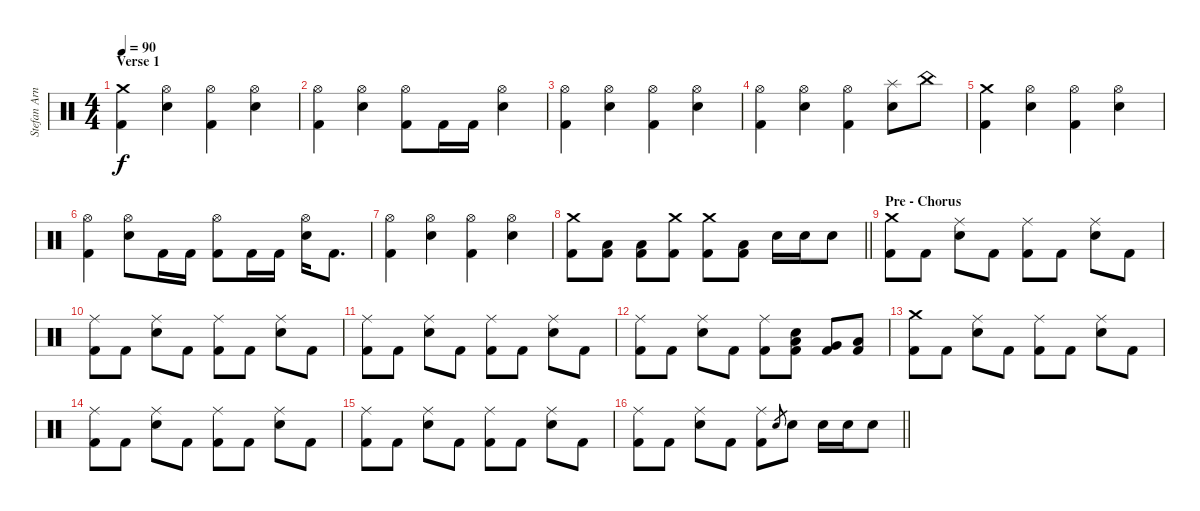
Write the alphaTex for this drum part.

\track ("Stefan Arnold" "Stefan Arn") {instrument percussion}
\staff {score}
\articulation defaults
\ts (4 4)
\section ("" "Verse 1")
\tempo 90
\clef neutral
\ks c
("Crash medium (hit)" "Kick (hit) 2").4{dy f} ("Hi-Hat (open)" "Electric Snare (hit)").4 ("Hi-Hat (open)" "Kick (hit) 2").4 ("Hi-Hat (open)" "Electric Snare (hit)").4 |
("Hi-Hat (open)" "Kick (hit) 2").4 ("Hi-Hat (open)" "Electric Snare (hit)").4 ("Hi-Hat (open)" "Kick (hit) 2").8 "Kick (hit) 2".16 "Kick (hit) 2".16 ("Hi-Hat (open)" "Electric Snare (hit)").4 |
("Hi-Hat (open)" "Kick (hit) 2").4 ("Hi-Hat (open)" "Electric Snare (hit)").4 ("Hi-Hat (open)" "Kick (hit) 2").4 ("Hi-Hat (open)" "Electric Snare (hit)").4 |
("Hi-Hat (open)" "Kick (hit) 2").4 ("Hi-Hat (open)" "Electric Snare (hit)").4 ("Hi-Hat (open)" "Kick (hit) 2").4 ("Splash (hit)" "Electric Snare (hit)").8 "China (hit)".8 |
("Crash medium (hit)" "Kick (hit) 2").4 ("Hi-Hat (open)" "Electric Snare (hit)").4 ("Hi-Hat (open)" "Kick (hit) 2").4 ("Hi-Hat (open)" "Electric Snare (hit)").4 |
("Hi-Hat (open)" "Kick (hit) 2").4 ("Hi-Hat (open)" "Electric Snare (hit)").8 "Kick (hit) 2".16 "Kick (hit) 2".16 ("Hi-Hat (open)" "Kick (hit) 2").8 "Kick (hit) 2".16 "Kick (hit) 2".16 ("Hi-Hat (open)" "Electric Snare (hit)").16 "Kick (hit) 2".8{d} |
("Hi-Hat (open)" "Kick (hit) 2").4 ("Hi-Hat (open)" "Electric Snare (hit)").4 ("Hi-Hat (open)" "Kick (hit) 2").4 ("Hi-Hat (open)" "Electric Snare (hit)").4 |
\barLineRight lightlight
("Crash medium (hit)" "Kick (hit) 2").8 ("Low Floor Tom (hit)" "Kick (hit) 2").8 ("Low Floor Tom (hit)" "Kick (hit) 2").8 ("Crash medium (hit)" "Kick (hit) 2").8 ("Crash medium (hit)" "Kick (hit) 2").8 ("Low Floor Tom (hit)" "Kick (hit) 2").8 "Electric Snare (hit)".16 "Electric Snare (hit)".16 "Electric Snare (hit)".8 |
\section ("" "Pre - Chorus")
("Crash medium (hit)" "Kick (hit) 2").8 "Kick (hit) 2".8 ("Ride (middle)" "Electric Snare (hit)").8 "Kick (hit) 2".8 ("Ride (middle)" "Kick (hit) 2").8 "Kick (hit) 2".8 ("Ride (middle)" "Electric Snare (hit)").8 "Kick (hit) 2".8 |
("Ride (middle)" "Kick (hit) 2").8 "Kick (hit) 2".8 ("Ride (middle)" "Electric Snare (hit)").8 "Kick (hit) 2".8 ("Ride (middle)" "Kick (hit) 2").8 "Kick (hit) 2".8 ("Ride (middle)" "Electric Snare (hit)").8 "Kick (hit) 2".8 |
("Ride (middle)" "Kick (hit) 2").8 "Kick (hit) 2".8 ("Ride (middle)" "Electric Snare (hit)").8 "Kick (hit) 2".8 ("Ride (middle)" "Kick (hit) 2").8 "Kick (hit) 2".8 ("Ride (middle)" "Electric Snare (hit)").8 "Kick (hit) 2".8 |
("Ride (middle)" "Kick (hit) 2").8 "Kick (hit) 2".8 ("Ride (middle)" "Electric Snare (hit)").8 "Kick (hit) 2".8 ("Ride (middle)" "Kick (hit) 2").8 ("Electric Snare (hit)" "Low Tom (hit)" "Kick (hit) 2").8 ("Very Low Tom (hit)" "Kick (hit) 2").8 ("Low Floor Tom (hit)" "Kick (hit) 2").8 |
("Crash medium (hit)" "Kick (hit) 2").8 "Kick (hit) 2".8 ("Ride (middle)" "Electric Snare (hit)").8 "Kick (hit) 2".8 ("Ride (middle)" "Kick (hit) 2").8 "Kick (hit) 2".8 ("Ride (middle)" "Electric Snare (hit)").8 "Kick (hit) 2".8 |
("Ride (middle)" "Kick (hit) 2").8 "Kick (hit) 2".8 ("Ride (middle)" "Electric Snare (hit)").8 "Kick (hit) 2".8 ("Ride (middle)" "Kick (hit) 2").8 "Kick (hit) 2".8 ("Ride (middle)" "Electric Snare (hit)").8 "Kick (hit) 2".8 |
("Ride (middle)" "Kick (hit) 2").8 "Kick (hit) 2".8 ("Ride (middle)" "Electric Snare (hit)").8 "Kick (hit) 2".8 ("Ride (middle)" "Kick (hit) 2").8 "Kick (hit) 2".8 ("Ride (middle)" "Electric Snare (hit)").8 "Kick (hit) 2".8 |
\barLineRight lightlight
("Ride (middle)" "Kick (hit) 2").8 "Kick (hit) 2".8 ("Ride (middle)" "Electric Snare (hit)").8 "Kick (hit) 2".8 ("Ride (middle)" "Kick (hit) 2").8 "Electric Snare (hit)".8{gr} "Electric Snare (hit)".8 "Electric Snare (hit)".16 "Electric Snare (hit)".16 "Electric Snare (hit)".8
